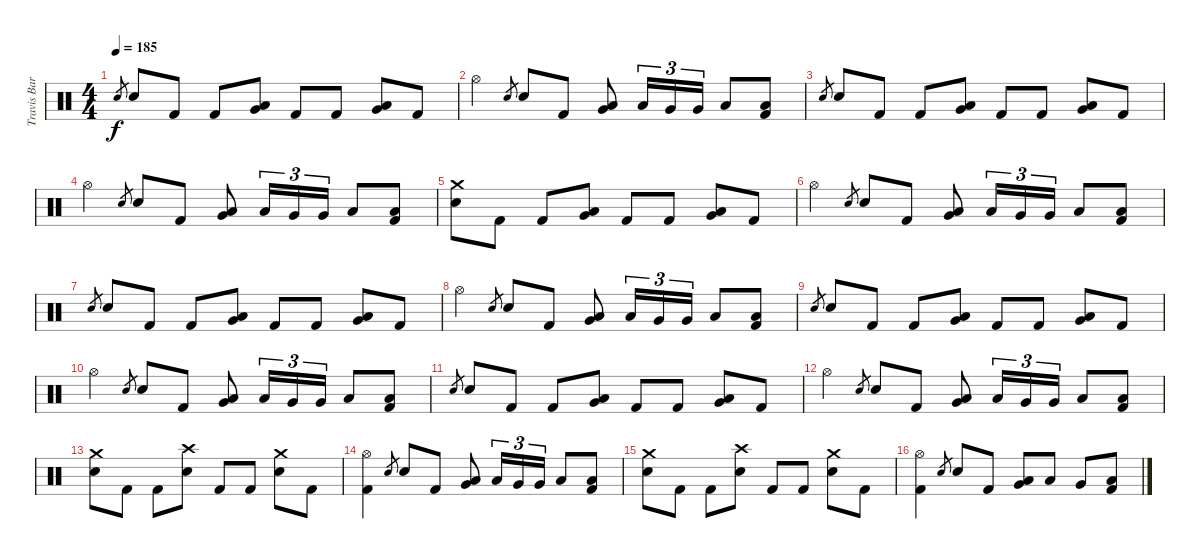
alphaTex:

\track ("Travis Barker - Drums" "Travis Bar") {instrument percussion}
\staff {score}
\articulation defaults
\ts (4 4)
\tempo 185
\clef neutral
\ks c "Electric Snare (hit)".8{gr dy f} "Electric Snare (hit)".8 "Kick (hit) 2".8 "Kick (hit) 2".8
("Low Tom (hit)" "Very Low Tom (hit)").8 "Kick (hit) 2".8 "Kick (hit) 2".8 ("Low Floor Tom (hit)" "Very Low Tom (hit)").8 "Kick (hit) 2".8 |
"Hi-Hat (open)".4 "Electric Snare (hit)".8{gr} "Electric Snare (hit)".8 "Kick (hit) 2".8 ("Low Tom (hit)" "Very Low Tom (hit)").8 "Low Tom (hit)".16{tu (3 2)} "Very Low Tom (hit)".16{tu (3 2)} "Very Low Tom (hit)".16{tu (3 2)} "Low Floor Tom (hit)".8 ("Low Floor Tom (hit)" "Kick (hit) 2").8 |
"Electric Snare (hit)".8{gr} "Electric Snare (hit)".8 "Kick (hit) 2".8 "Kick (hit) 2".8 ("Low Tom (hit)" "Very Low Tom (hit)").8 "Kick (hit) 2".8 "Kick (hit) 2".8 ("Low Floor Tom (hit)" "Very Low Tom (hit)").8 "Kick (hit) 2".8 |
"Hi-Hat (open)".4 "Electric Snare (hit)".8{gr} "Electric Snare (hit)".8 "Kick (hit) 2".8 ("Low Tom (hit)" "Very Low Tom (hit)").8 "Low Tom (hit)".16{tu (3 2)} "Very Low Tom (hit)".16{tu (3 2)} "Very Low Tom (hit)".16{tu (3 2)} "Low Floor Tom (hit)".8 ("Low Floor Tom (hit)" "Kick (hit) 2").8 |
("Crash medium (hit)" "Electric Snare (hit)").8 "Kick (hit) 2".8 "Kick (hit) 2".8 ("Low Tom (hit)" "Very Low Tom (hit)").8 "Kick (hit) 2".8 "Kick (hit) 2".8 ("Low Floor Tom (hit)" "Very Low Tom (hit)").8 "Kick (hit) 2".8 |
"Hi-Hat (open)".4 "Electric Snare (hit)".8{gr} "Electric Snare (hit)".8 "Kick (hit) 2".8 ("Low Tom (hit)" "Very Low Tom (hit)").8 "Low Tom (hit)".16{tu (3 2)} "Very Low Tom (hit)".16{tu (3 2)} "Very Low Tom (hit)".16{tu (3 2)} "Low Floor Tom (hit)".8 ("Low Floor Tom (hit)" "Kick (hit) 2").8 |
"Electric Snare (hit)".8{gr} "Electric Snare (hit)".8 "Kick (hit) 2".8 "Kick (hit) 2".8 ("Low Tom (hit)" "Very Low Tom (hit)").8 "Kick (hit) 2".8 "Kick (hit) 2".8 ("Low Floor Tom (hit)" "Very Low Tom (hit)").8 "Kick (hit) 2".8 |
"Hi-Hat (open)".4 "Electric Snare (hit)".8{gr} "Electric Snare (hit)".8 "Kick (hit) 2".8 ("Low Tom (hit)" "Very Low Tom (hit)").8 "Low Tom (hit)".16{tu (3 2)} "Very Low Tom (hit)".16{tu (3 2)} "Very Low Tom (hit)".16{tu (3 2)} "Low Floor Tom (hit)".8 ("Low Floor Tom (hit)" "Kick (hit) 2").8 |
"Electric Snare (hit)".8{gr} "Electric Snare (hit)".8 "Kick (hit) 2".8 "Kick (hit) 2".8 ("Low Tom (hit)" "Very Low Tom (hit)").8 "Kick (hit) 2".8 "Kick (hit) 2".8 ("Low Floor Tom (hit)" "Very Low Tom (hit)").8 "Kick (hit) 2".8 |
"Hi-Hat (open)".4 "Electric Snare (hit)".8{gr} "Electric Snare (hit)".8 "Kick (hit) 2".8 ("Low Tom (hit)" "Very Low Tom (hit)").8 "Low Tom (hit)".16{tu (3 2)} "Very Low Tom (hit)".16{tu (3 2)} "Very Low Tom (hit)".16{tu (3 2)} "Low Floor Tom (hit)".8 ("Low Floor Tom (hit)" "Kick (hit) 2").8 |
"Electric Snare (hit)".8{gr} "Electric Snare (hit)".8 "Kick (hit) 2".8 "Kick (hit) 2".8 ("Low Tom (hit)" "Very Low Tom (hit)").8 "Kick (hit) 2".8 "Kick (hit) 2".8 ("Low Floor Tom (hit)" "Very Low Tom (hit)").8 "Kick (hit) 2".8 |
"Hi-Hat (open)".4 "Electric Snare (hit)".8{gr} "Electric Snare (hit)".8 "Kick (hit) 2".8 ("Low Tom (hit)" "Very Low Tom (hit)").8 "Low Tom (hit)".16{tu (3 2)} "Very Low Tom (hit)".16{tu (3 2)} "Very Low Tom (hit)".16{tu (3 2)} "Low Floor Tom (hit)".8 ("Low Floor Tom (hit)" "Kick (hit) 2").8 |
("Crash medium (hit)" "Electric Snare (hit)").8 "Kick (hit) 2".8 "Kick (hit) 2".8 ("Crash high (hit)" "Electric Snare (hit)").8 "Kick (hit) 2".8 "Kick (hit) 2".8 ("Crash medium (hit)" "Electric Snare (hit)").8 "Kick (hit) 2".8 |
("Hi-Hat (open)" "Kick (hit) 2").4 "Electric Snare (hit)".8{gr} "Electric Snare (hit)".8 "Kick (hit) 2".8 ("Low Tom (hit)" "Very Low Tom (hit)").8 "Low Tom (hit)".16{tu (3 2)} "Very Low Tom (hit)".16{tu (3 2)} "Very Low Tom (hit)".16{tu (3 2)} "Low Floor Tom (hit)".8 ("Low Floor Tom (hit)" "Kick (hit) 2").8 |
("Crash medium (hit)" "Electric Snare (hit)").8 "Kick (hit) 2".8 "Kick (hit) 2".8 ("Crash high (hit)" "Electric Snare (hit)").8 "Kick (hit) 2".8 "Kick (hit) 2".8 ("Crash medium (hit)" "Electric Snare (hit)").8 "Kick (hit) 2".8 |
("Hi-Hat (open)" "Kick (hit) 2").4 "Electric Snare (hit)".8{gr} "Electric Snare (hit)".8 "Kick (hit) 2".8 ("Low Tom (hit)" "Very Low Tom (hit)").8 "Low Tom (hit)".8 "Very Low Tom (hit)".8 ("Low Floor Tom (hit)" "Kick (hit) 2").8
